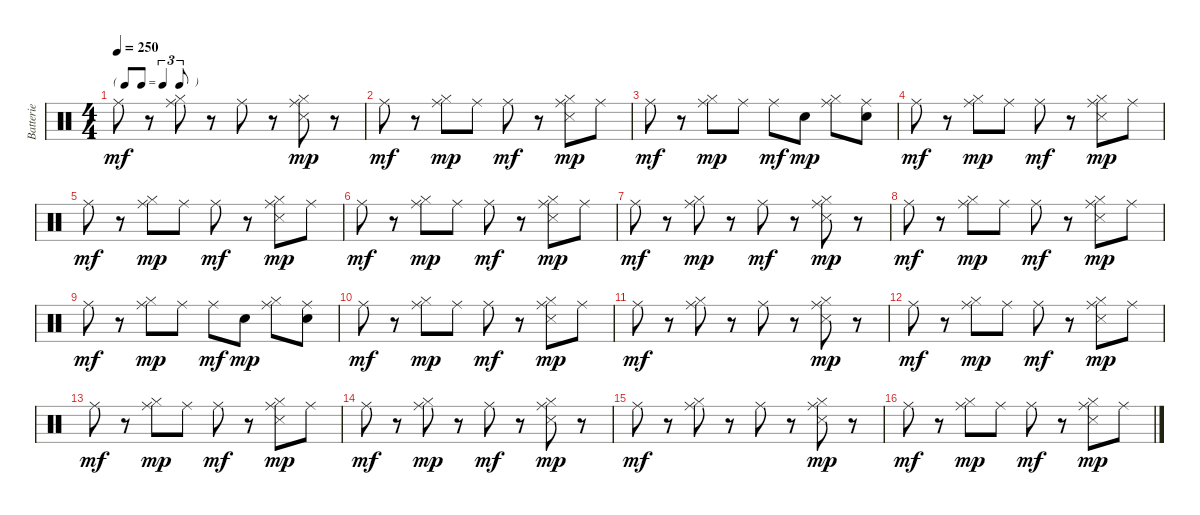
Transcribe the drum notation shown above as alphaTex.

\track ("Batterie" "Batterie") {instrument percussion}
\staff {score}
\articulation defaults
\ts (4 4)
\tf triplet8th
\tempo 250
\clef neutral
\ks c "Ride (middle)".8{dy mf}
r.8 ("Hi-Hat (closed)" "Ride (middle)").8 r.8 "Ride (middle)".8 r.8 ("Hi-Hat (closed)" "Snare (side stick) 3" "Ride (middle)").8{dy mp} r.8 |
"Ride (middle)".8{dy mf} r.8 ("Hi-Hat (closed)" "Ride (middle)").8{dy mp} "Ride (middle)".8 "Ride (middle)".8{dy mf} r.8 ("Hi-Hat (closed)" "Snare (side stick) 3" "Ride (middle)").8{dy mp} "Ride (middle)".8 |
"Ride (middle)".8{dy mf} r.8 ("Hi-Hat (closed)" "Ride (middle)").8{dy mp} "Ride (middle)".8 "Ride (middle)".8{dy mf} "Snare (hit) 2".8{dy mp} ("Hi-Hat (closed)" "Ride (middle)").8 ("Snare (hit) 2" "Ride (middle)").8 |
"Ride (middle)".8{dy mf} r.8 ("Hi-Hat (closed)" "Ride (middle)").8{dy mp} "Ride (middle)".8 "Ride (middle)".8{dy mf} r.8 ("Hi-Hat (closed)" "Snare (side stick) 3" "Ride (middle)").8{dy mp} "Ride (middle)".8 |
"Ride (middle)".8{dy mf} r.8 ("Hi-Hat (closed)" "Ride (middle)").8{dy mp} "Ride (middle)".8 "Ride (middle)".8{dy mf} r.8 ("Hi-Hat (closed)" "Snare (side stick) 3" "Ride (middle)").8{dy mp} "Ride (middle)".8 |
"Ride (middle)".8{dy mf} r.8 ("Hi-Hat (closed)" "Ride (middle)").8{dy mp} "Ride (middle)".8 "Ride (middle)".8{dy mf} r.8 ("Hi-Hat (closed)" "Snare (side stick) 3" "Ride (middle)").8{dy mp} "Ride (middle)".8 |
"Ride (middle)".8{dy mf} r.8 ("Hi-Hat (closed)" "Ride (middle)").8{dy mp} r.8 "Ride (middle)".8{dy mf} r.8 ("Hi-Hat (closed)" "Snare (side stick) 3" "Ride (middle)").8{dy mp} r.8 |
"Ride (middle)".8{dy mf} r.8 ("Hi-Hat (closed)" "Ride (middle)").8{dy mp} "Ride (middle)".8 "Ride (middle)".8{dy mf} r.8 ("Hi-Hat (closed)" "Snare (side stick) 3" "Ride (middle)").8{dy mp} "Ride (middle)".8 |
"Ride (middle)".8{dy mf} r.8 ("Hi-Hat (closed)" "Ride (middle)").8{dy mp} "Ride (middle)".8 "Ride (middle)".8{dy mf} "Snare (hit) 2".8{dy mp} ("Hi-Hat (closed)" "Ride (middle)").8 ("Snare (hit) 2" "Ride (middle)").8 |
"Ride (middle)".8{dy mf} r.8 ("Hi-Hat (closed)" "Ride (middle)").8{dy mp} "Ride (middle)".8 "Ride (middle)".8{dy mf} r.8 ("Hi-Hat (closed)" "Snare (side stick) 3" "Ride (middle)").8{dy mp} "Ride (middle)".8 |
"Ride (middle)".8{dy mf} r.8 ("Hi-Hat (closed)" "Ride (middle)").8 r.8 "Ride (middle)".8 r.8 ("Hi-Hat (closed)" "Snare (side stick) 3" "Ride (middle)").8{dy mp} r.8 |
"Ride (middle)".8{dy mf} r.8 ("Hi-Hat (closed)" "Ride (middle)").8{dy mp} "Ride (middle)".8 "Ride (middle)".8{dy mf} r.8 ("Hi-Hat (closed)" "Snare (side stick) 3" "Ride (middle)").8{dy mp} "Ride (middle)".8 |
"Ride (middle)".8{dy mf} r.8 ("Hi-Hat (closed)" "Ride (middle)").8{dy mp} "Ride (middle)".8 "Ride (middle)".8{dy mf} r.8 ("Hi-Hat (closed)" "Snare (side stick) 3" "Ride (middle)").8{dy mp} "Ride (middle)".8 |
"Ride (middle)".8{dy mf} r.8 ("Hi-Hat (closed)" "Ride (middle)").8{dy mp} r.8 "Ride (middle)".8{dy mf} r.8 ("Hi-Hat (closed)" "Snare (side stick) 3" "Ride (middle)").8{dy mp} r.8 |
"Ride (middle)".8{dy mf} r.8 ("Hi-Hat (closed)" "Ride (middle)").8 r.8 "Ride (middle)".8 r.8 ("Hi-Hat (closed)" "Snare (side stick) 3" "Ride (middle)").8{dy mp} r.8 |
"Ride (middle)".8{dy mf} r.8 ("Hi-Hat (closed)" "Ride (middle)").8{dy mp} "Ride (middle)".8 "Ride (middle)".8{dy mf} r.8 ("Hi-Hat (closed)" "Snare (side stick) 3" "Ride (middle)").8{dy mp} "Ride (middle)".8
